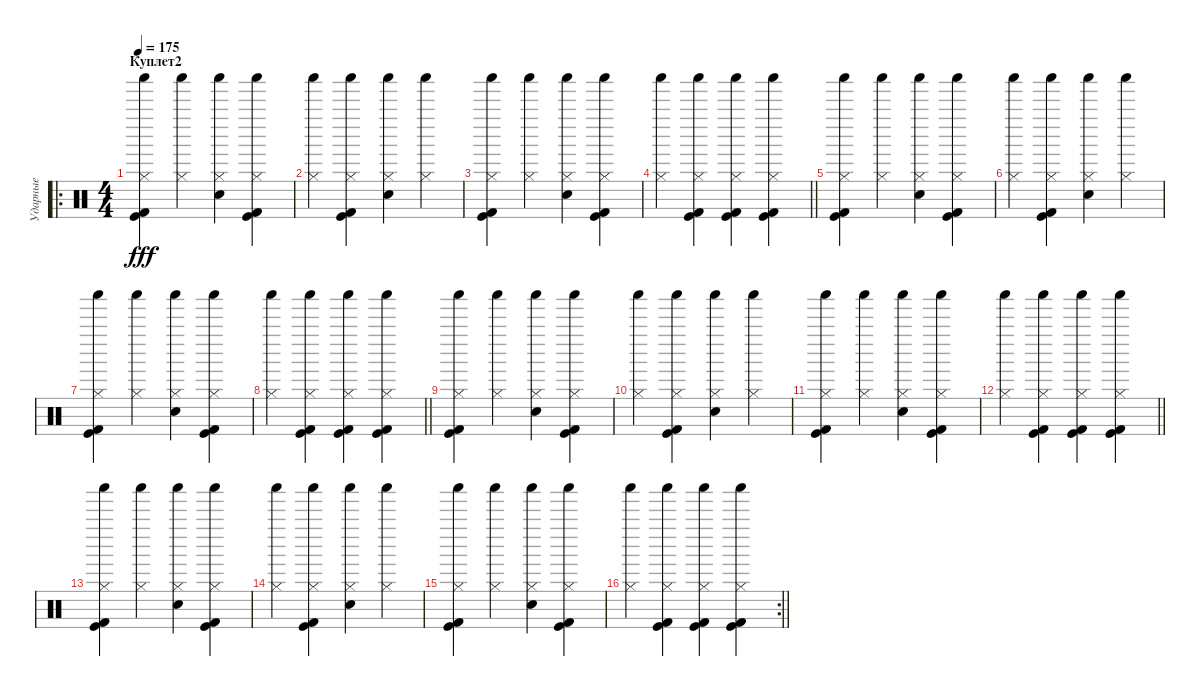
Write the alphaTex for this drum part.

\track ("Ударные" "Ударные") {instrument percussion}
\staff {score}
\articulation defaults
\ro
\ts (4 4)
\section ("" "Куплет2")
\tempo 175
\clef neutral
\ks c
("Kick (hit) 2" "Hi-Hat (closed)" "Kick (hit)" "Shaker (hit)").4{dy fff} ("Hi-Hat (closed)" "Shaker (hit)").4 ("Hi-Hat (closed)" "Snare (hit) 2" "Shaker (hit)").4 ("Kick (hit) 2" "Hi-Hat (closed)" "Kick (hit)" "Shaker (hit)").4 |
("Hi-Hat (closed)" "Shaker (hit)").4 ("Kick (hit) 2" "Hi-Hat (closed)" "Kick (hit)" "Shaker (hit)").4 ("Hi-Hat (closed)" "Snare (hit) 2" "Shaker (hit)").4 ("Hi-Hat (closed)" "Shaker (hit)").4 |
("Kick (hit) 2" "Hi-Hat (closed)" "Kick (hit)" "Shaker (hit)").4 ("Hi-Hat (closed)" "Shaker (hit)").4 ("Hi-Hat (closed)" "Snare (hit) 2" "Shaker (hit)").4 ("Kick (hit) 2" "Hi-Hat (closed)" "Kick (hit)" "Shaker (hit)").4 |
\barLineRight lightlight
("Hi-Hat (closed)" "Shaker (hit)").4 ("Kick (hit) 2" "Hi-Hat (closed)" "Kick (hit)" "Shaker (hit)").4 ("Kick (hit) 2" "Hi-Hat (closed)" "Kick (hit)" "Shaker (hit)").4 ("Kick (hit) 2" "Hi-Hat (closed)" "Kick (hit)" "Shaker (hit)").4 |
("Kick (hit) 2" "Hi-Hat (closed)" "Kick (hit)" "Shaker (hit)").4 ("Hi-Hat (closed)" "Shaker (hit)").4 ("Hi-Hat (closed)" "Snare (hit) 2" "Shaker (hit)").4 ("Kick (hit) 2" "Hi-Hat (closed)" "Kick (hit)" "Shaker (hit)").4 |
("Hi-Hat (closed)" "Shaker (hit)").4 ("Kick (hit) 2" "Hi-Hat (closed)" "Kick (hit)" "Shaker (hit)").4 ("Hi-Hat (closed)" "Snare (hit) 2" "Shaker (hit)").4 ("Hi-Hat (closed)" "Shaker (hit)").4 |
("Kick (hit) 2" "Hi-Hat (closed)" "Kick (hit)" "Shaker (hit)").4 ("Hi-Hat (closed)" "Shaker (hit)").4 ("Hi-Hat (closed)" "Snare (hit) 2" "Shaker (hit)").4 ("Kick (hit) 2" "Hi-Hat (closed)" "Kick (hit)" "Shaker (hit)").4 |
\barLineRight lightlight
("Hi-Hat (closed)" "Shaker (hit)").4 ("Kick (hit) 2" "Hi-Hat (closed)" "Kick (hit)" "Shaker (hit)").4 ("Kick (hit) 2" "Hi-Hat (closed)" "Kick (hit)" "Shaker (hit)").4 ("Kick (hit) 2" "Hi-Hat (closed)" "Kick (hit)" "Shaker (hit)").4 |
("Kick (hit) 2" "Hi-Hat (closed)" "Kick (hit)" "Shaker (hit)").4 ("Hi-Hat (closed)" "Shaker (hit)").4 ("Hi-Hat (closed)" "Snare (hit) 2" "Shaker (hit)").4 ("Kick (hit) 2" "Hi-Hat (closed)" "Kick (hit)" "Shaker (hit)").4 |
("Hi-Hat (closed)" "Shaker (hit)").4 ("Kick (hit) 2" "Hi-Hat (closed)" "Kick (hit)" "Shaker (hit)").4 ("Hi-Hat (closed)" "Snare (hit) 2" "Shaker (hit)").4 ("Hi-Hat (closed)" "Shaker (hit)").4 |
("Kick (hit) 2" "Hi-Hat (closed)" "Kick (hit)" "Shaker (hit)").4 ("Hi-Hat (closed)" "Shaker (hit)").4 ("Hi-Hat (closed)" "Snare (hit) 2" "Shaker (hit)").4 ("Kick (hit) 2" "Hi-Hat (closed)" "Kick (hit)" "Shaker (hit)").4 |
\barLineRight lightlight
("Hi-Hat (closed)" "Shaker (hit)").4 ("Kick (hit) 2" "Hi-Hat (closed)" "Kick (hit)" "Shaker (hit)").4 ("Kick (hit) 2" "Hi-Hat (closed)" "Kick (hit)" "Shaker (hit)").4 ("Kick (hit) 2" "Hi-Hat (closed)" "Kick (hit)" "Shaker (hit)").4 |
("Kick (hit) 2" "Hi-Hat (closed)" "Kick (hit)" "Shaker (hit)").4 ("Hi-Hat (closed)" "Shaker (hit)").4 ("Hi-Hat (closed)" "Snare (hit) 2" "Shaker (hit)").4 ("Kick (hit) 2" "Hi-Hat (closed)" "Kick (hit)" "Shaker (hit)").4 |
("Hi-Hat (closed)" "Shaker (hit)").4 ("Kick (hit) 2" "Hi-Hat (closed)" "Kick (hit)" "Shaker (hit)").4 ("Hi-Hat (closed)" "Snare (hit) 2" "Shaker (hit)").4 ("Hi-Hat (closed)" "Shaker (hit)").4 |
("Kick (hit) 2" "Hi-Hat (closed)" "Kick (hit)" "Shaker (hit)").4 ("Hi-Hat (closed)" "Shaker (hit)").4 ("Hi-Hat (closed)" "Snare (hit) 2" "Shaker (hit)").4 ("Kick (hit) 2" "Hi-Hat (closed)" "Kick (hit)" "Shaker (hit)").4 |
\rc 2
\barLineRight lightlight
("Hi-Hat (closed)" "Shaker (hit)").4 ("Kick (hit) 2" "Hi-Hat (closed)" "Kick (hit)" "Shaker (hit)").4 ("Kick (hit) 2" "Hi-Hat (closed)" "Kick (hit)" "Shaker (hit)").4 ("Kick (hit) 2" "Hi-Hat (closed)" "Kick (hit)" "Shaker (hit)").4
